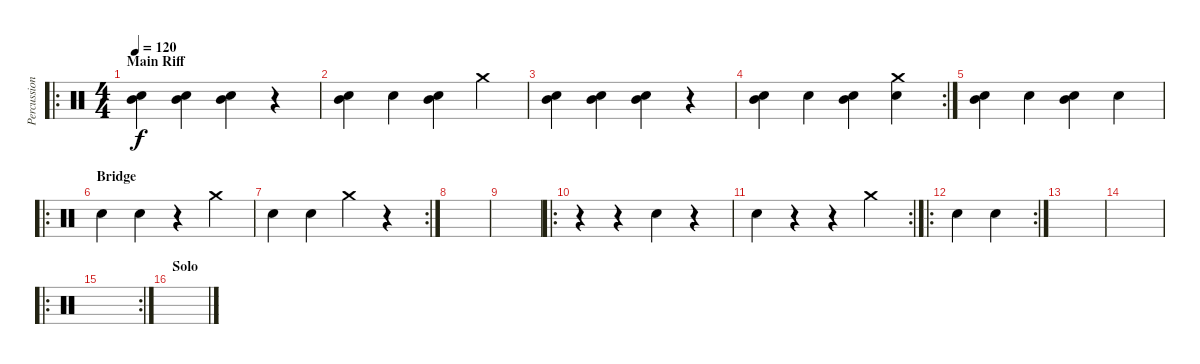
\track ("Percussion" "Percussion") {instrument percussion}
\staff {score}
\articulation defaults
\ro
\ts (4 4)
\section ("" "Main Riff")
\tempo 120
\clef neutral
\ks c
("Electric Snare (hit)" "Mid Tom (hit)").4{dy f} ("Electric Snare (hit)" "Mid Tom (hit)").4 ("Electric Snare (hit)" "Mid Tom (hit)").4 r.4 |
("Electric Snare (hit)" "Mid Tom (hit)").4 "Electric Snare (hit)".4 ("Electric Snare (hit)" "Mid Tom (hit)").4 "Crash medium (hit)".4 |
("Electric Snare (hit)" "Mid Tom (hit)").4 ("Electric Snare (hit)" "Mid Tom (hit)").4 ("Electric Snare (hit)" "Mid Tom (hit)").4 r.4 |
\rc 2
("Electric Snare (hit)" "Mid Tom (hit)").4 "Electric Snare (hit)".4 ("Electric Snare (hit)" "Mid Tom (hit)").4 ("Crash medium (hit)" "Electric Snare (hit)").4 |
("Electric Snare (hit)" "Mid Tom (hit)").4 "Electric Snare (hit)".4 ("Electric Snare (hit)" "Mid Tom (hit)").4 "Electric Snare (hit)".4 |
\ro
\section ("" "Bridge")
"Electric Snare (hit)".4 "Electric Snare (hit)".4 r.4 "Crash medium (hit)".4 |
\rc 2 "Electric Snare (hit)".4 "Electric Snare (hit)".4 "Crash medium (hit)".4
r.4 |
|
|
\ro
r.4 r.4 "Electric Snare (hit)".4 r.4 |
\rc 2 "Electric Snare (hit)".4
r.4 r.4 "Crash medium (hit)".4 |
\ro
\rc 2 "Electric Snare (hit)".4 "Electric Snare (hit)".4
|
|
|
\ro
\rc 2
|
\section ("" "Solo")
